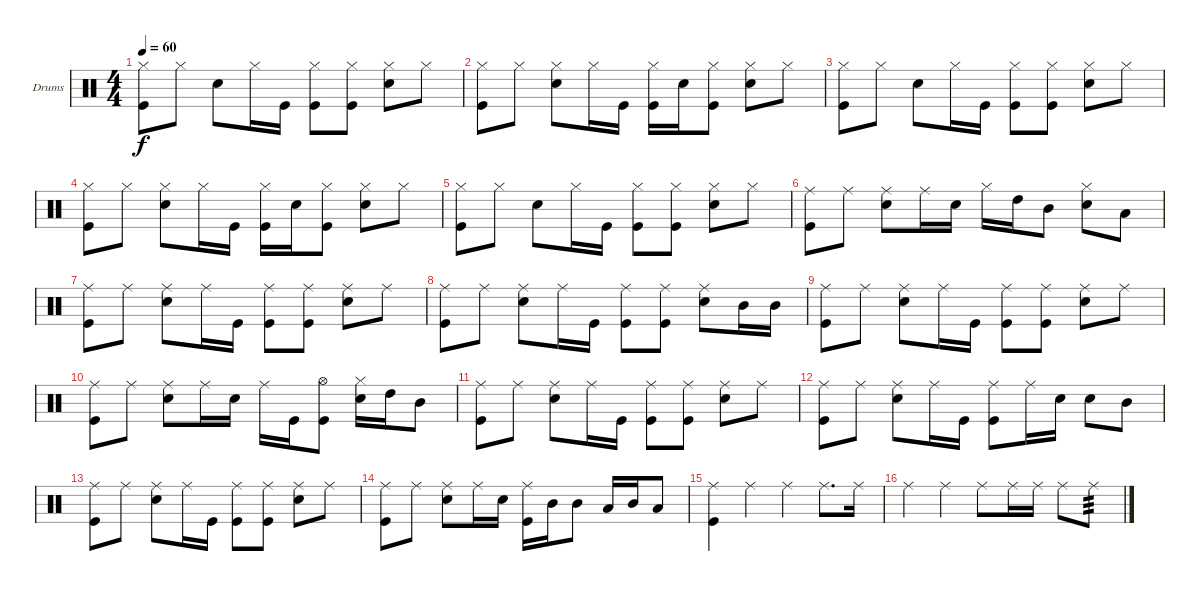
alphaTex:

\defaultSystemsLayout 4
\bracketExtendMode groupsimilarinstruments
\firstSystemTrackNameOrientation horizontal
\otherSystemsTrackNameOrientation horizontal
\track ("Drumkit" "Drums") {instrument percussion}
\staff {score}
\articulation defaults
\ts (4 4)
\tempo 60
\clef neutral
\scale
0.333333
\ks c
("Hi-Hat (closed)" "Kick (hit)").8{dy f} "Hi-Hat (closed)".8 "Snare (hit) 2".8 "Hi-Hat (closed)".16 "Kick (hit)".16 ("Hi-Hat (closed)" "Kick (hit)").8 ("Hi-Hat (closed)" "Kick (hit)").8 ("Hi-Hat (closed)" "Snare (hit) 2").8 "Hi-Hat (closed)".8 |
\scale
0.333333 ("Hi-Hat (closed)" "Kick (hit)").8 "Hi-Hat (closed)".8 ("Hi-Hat (closed)" "Snare (hit) 2").8 "Hi-Hat (closed)".16 "Kick (hit)".16 ("Hi-Hat (closed)" "Kick (hit)").16 "Snare (hit) 2".16 ("Hi-Hat (closed)" "Kick (hit)").8 ("Hi-Hat (closed)" "Snare (hit) 2").8 "Hi-Hat (closed)".8 |
\scale
0.333333 ("Hi-Hat (closed)" "Kick (hit)").8 "Hi-Hat (closed)".8 "Snare (hit) 2".8 "Hi-Hat (closed)".16 "Kick (hit)".16 ("Hi-Hat (closed)" "Kick (hit)").8 ("Hi-Hat (closed)" "Kick (hit)").8 ("Hi-Hat (closed)" "Snare (hit) 2").8 "Hi-Hat (closed)".8 |
\scale
0.333333 ("Hi-Hat (closed)" "Kick (hit)").8 "Hi-Hat (closed)".8 ("Hi-Hat (closed)" "Snare (hit) 2").8 "Hi-Hat (closed)".16 "Kick (hit)".16 ("Hi-Hat (closed)" "Kick (hit)").16 "Snare (hit) 2".16 ("Hi-Hat (closed)" "Kick (hit)").8 ("Hi-Hat (closed)" "Snare (hit) 2").8 "Hi-Hat (closed)".8 |
\scale
0.333333 ("Hi-Hat (closed)" "Kick (hit)").8 "Hi-Hat (closed)".8 "Snare (hit) 2".8 "Hi-Hat (closed)".16 "Kick (hit)".16 ("Hi-Hat (closed)" "Kick (hit)").8 ("Hi-Hat (closed)" "Kick (hit)").8 ("Hi-Hat (closed)" "Snare (hit) 2").8 "Hi-Hat (closed)".8 |
\scale
0.333333 ("Kick (hit)" "Ride (middle)").8 "Ride (middle)".8 ("Snare (hit) 2" "Ride (middle)").8 "Ride (middle)".16 "Snare (hit) 2".16 "Hi-Hat (closed)".16 "High Tom (hit)".16 "Mid Tom (hit)".8 ("Hi-Hat (closed)" "Snare (hit) 2").8 "Low Tom (hit)".8 |
\scale
0.333333 ("Kick (hit)" "Ride (middle)").8 "Ride (middle)".8 ("Snare (hit) 2" "Ride (middle)").8 "Ride (middle)".16 "Kick (hit)".16 ("Kick (hit)" "Ride (middle)").8 ("Kick (hit)" "Ride (middle)").8 ("Snare (hit) 2" "Ride (middle)").8 "Ride (middle)".8 |
\scale
0.333333 ("Kick (hit)" "Ride (middle)").8 "Ride (middle)".8 ("Snare (hit) 2" "Ride (middle)").8 "Ride (middle)".16 "Kick (hit)".16 ("Kick (hit)" "Ride (middle)").8 ("Kick (hit)" "Ride (middle)").8 ("Snare (hit) 2" "Ride (middle)").8 "Mid Tom (hit)".16 "Mid Tom (hit)".16 |
\scale
0.333333 ("Kick (hit)" "Ride (middle)").8 "Ride (middle)".8 ("Snare (hit) 2" "Ride (middle)").8 "Ride (middle)".16 "Kick (hit)".16 ("Kick (hit)" "Ride (middle)").8 ("Kick (hit)" "Ride (middle)").8 ("Snare (hit) 2" "Ride (middle)").8 "Ride (middle)".8 |
\scale
0.333333 ("Kick (hit)" "Ride (middle)").8 "Ride (middle)".8 ("Snare (hit) 2" "Ride (middle)").8 "Ride (middle)".16 "Snare (hit) 2".16 "Ride (middle)".16 "Kick (hit)".16 ("Hi-Hat (open)" "Kick (hit)").8 ("Hi-Hat (closed)" "Snare (hit) 2").16 "High Tom (hit)".16 "Mid Tom (hit)".8 |
\scale
0.333333 ("Kick (hit)" "Ride (middle)").8 "Ride (middle)".8 ("Snare (hit) 2" "Ride (middle)").8 "Ride (middle)".16 "Kick (hit)".16 ("Kick (hit)" "Ride (middle)").8 ("Kick (hit)" "Ride (middle)").8 ("Snare (hit) 2" "Ride (middle)").8 "Ride (middle)".8 |
\scale
0.333333 ("Kick (hit)" "Ride (middle)").8 "Ride (middle)".8 ("Snare (hit) 2" "Ride (middle)").8 "Ride (middle)".16 "Kick (hit)".16 ("Kick (hit)" "Ride (middle)").8 "Ride (middle)".16 "Snare (hit) 2".16 "Snare (hit) 2".8 "Mid Tom (hit)".8 |
\scale
0.333333 ("Kick (hit)" "Ride (middle)").8 "Ride (middle)".8 ("Snare (hit) 2" "Ride (middle)").8 "Ride (middle)".16 "Kick (hit)".16 ("Kick (hit)" "Ride (middle)").8 ("Kick (hit)" "Ride (middle)").8 ("Snare (hit) 2" "Ride (middle)").8 "Ride (middle)".8 |
\scale
0.333333 ("Kick (hit)" "Ride (middle)").8 "Ride (middle)".8 ("Snare (hit) 2" "Ride (middle)").8 "Ride (middle)".16 "Snare (hit) 2".16 ("Kick (hit)" "Ride (middle)").16 "Mid Tom (hit)".16 "Mid Tom (hit)".8 "Low Tom (hit)".16 "Mid Tom (hit)".16 "Low Tom (hit)".8 |
\scale
0.333333 ("Kick (hit)" "Ride (middle)").4 "Ride (middle)".4 "Ride (middle)".4 "Ride (middle)".8{d} "Ride (middle)".16 |
\scale
0.333333 "Ride (middle)".4 "Ride (middle)".4 "Ride (middle)".8 "Ride (middle)".16 "Ride (middle)".16 "Ride (middle)".8 "Ride (middle)".8{tp 3}
